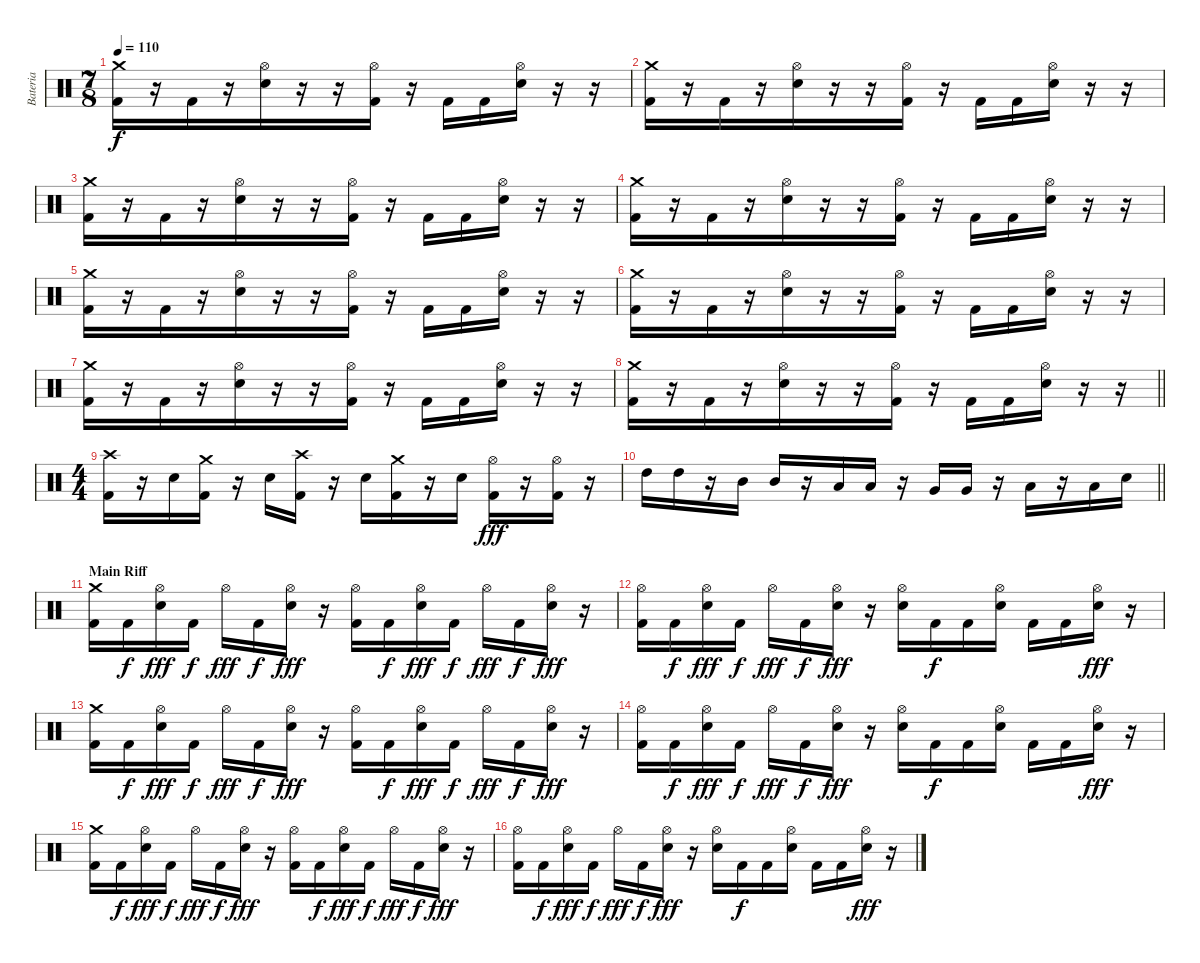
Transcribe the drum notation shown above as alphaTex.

\track ("Bateria " "Bateria ") {instrument percussion}
\staff {score}
\articulation defaults
\ts (7 8)
\tempo 110
\clef neutral
\ks c
("Crash medium (hit)" "Kick (hit) 2").16{dy f} r.16 "Kick (hit) 2".16 r.16 ("Hi-Hat (open)" "Electric Snare (hit)").16 r.16 r.16 ("Hi-Hat (open)" "Kick (hit) 2").16 r.16 "Kick (hit) 2".16 "Kick (hit) 2".16 ("Hi-Hat (open)" "Electric Snare (hit)").16 r.16 r.16 |
("Crash medium (hit)" "Kick (hit) 2").16 r.16 "Kick (hit) 2".16 r.16 ("Hi-Hat (open)" "Electric Snare (hit)").16 r.16 r.16 ("Hi-Hat (open)" "Kick (hit) 2").16 r.16 "Kick (hit) 2".16 "Kick (hit) 2".16 ("Hi-Hat (open)" "Electric Snare (hit)").16 r.16 r.16 |
("Crash medium (hit)" "Kick (hit) 2").16 r.16 "Kick (hit) 2".16 r.16 ("Hi-Hat (open)" "Electric Snare (hit)").16 r.16 r.16 ("Hi-Hat (open)" "Kick (hit) 2").16 r.16 "Kick (hit) 2".16 "Kick (hit) 2".16 ("Hi-Hat (open)" "Electric Snare (hit)").16 r.16 r.16 |
("Crash medium (hit)" "Kick (hit) 2").16 r.16 "Kick (hit) 2".16 r.16 ("Hi-Hat (open)" "Electric Snare (hit)").16 r.16 r.16 ("Hi-Hat (open)" "Kick (hit) 2").16 r.16 "Kick (hit) 2".16 "Kick (hit) 2".16 ("Hi-Hat (open)" "Electric Snare (hit)").16 r.16 r.16 |
("Crash medium (hit)" "Kick (hit) 2").16 r.16 "Kick (hit) 2".16 r.16 ("Hi-Hat (open)" "Electric Snare (hit)").16 r.16 r.16 ("Hi-Hat (open)" "Kick (hit) 2").16 r.16 "Kick (hit) 2".16 "Kick (hit) 2".16 ("Hi-Hat (open)" "Electric Snare (hit)").16 r.16 r.16 |
("Crash medium (hit)" "Kick (hit) 2").16 r.16 "Kick (hit) 2".16 r.16 ("Hi-Hat (open)" "Electric Snare (hit)").16 r.16 r.16 ("Hi-Hat (open)" "Kick (hit) 2").16 r.16 "Kick (hit) 2".16 "Kick (hit) 2".16 ("Hi-Hat (open)" "Electric Snare (hit)").16 r.16 r.16 |
("Crash medium (hit)" "Kick (hit) 2").16 r.16 "Kick (hit) 2".16 r.16 ("Hi-Hat (open)" "Electric Snare (hit)").16 r.16 r.16 ("Hi-Hat (open)" "Kick (hit) 2").16 r.16 "Kick (hit) 2".16 "Kick (hit) 2".16 ("Hi-Hat (open)" "Electric Snare (hit)").16 r.16 r.16 |
\barLineRight lightlight
("Crash medium (hit)" "Kick (hit) 2").16 r.16 "Kick (hit) 2".16 r.16 ("Hi-Hat (open)" "Electric Snare (hit)").16 r.16 r.16 ("Hi-Hat (open)" "Kick (hit) 2").16 r.16 "Kick (hit) 2".16 "Kick (hit) 2".16 ("Hi-Hat (open)" "Electric Snare (hit)").16 r.16 r.16 |
\ts (4 4)
("Crash high (hit)" "Kick (hit) 2").16 r.16 "Electric Snare (hit)".16 ("Crash medium (hit)" "Kick (hit) 2").16 r.16 "Electric Snare (hit)".16 ("Crash high (hit)" "Kick (hit) 2").16 r.16 "Electric Snare (hit)".16 ("Crash medium (hit)" "Kick (hit) 2").16 r.16 "Electric Snare (hit)".16 ("Hi-Hat (open)" "Kick (hit) 2").16{dy fff} r.16 ("Hi-Hat (open)" "Kick (hit) 2").16 r.16 |
\barLineRight lightlight "High Tom (hit)".16 "High Tom (hit)".16
r.16 "Mid Tom (hit)".16 "Mid Tom (hit)".16 r.16 "Low Tom (hit)".16 "Low Tom (hit)".16 r.16 "Very Low Tom (hit)".16 "Very Low Tom (hit)".16 r.16 "Low Floor Tom (hit)".16 r.16 "Low Floor Tom (hit)".16 "Electric Snare (hit)".16 |
\section ("" "Main Riff")
("Crash medium (hit)" "Kick (hit) 2").16 "Kick (hit) 2".16{dy f} ("Hi-Hat (open)" "Electric Snare (hit)").16{dy fff} "Kick (hit) 2".16{dy f} "Hi-Hat (open)".16{dy fff} "Kick (hit) 2".16{dy f} ("Hi-Hat (open)" "Electric Snare (hit)").16{dy fff} r.16 ("Hi-Hat (open)" "Kick (hit) 2").16 "Kick (hit) 2".16{dy f} ("Hi-Hat (open)" "Electric Snare (hit)").16{dy fff} "Kick (hit) 2".16{dy f} "Hi-Hat (open)".16{dy fff} "Kick (hit) 2".16{dy f} ("Hi-Hat (open)" "Electric Snare (hit)").16{dy fff} r.16 |
("Hi-Hat (open)" "Kick (hit) 2").16 "Kick (hit) 2".16{dy f} ("Hi-Hat (open)" "Electric Snare (hit)").16{dy fff} "Kick (hit) 2".16{dy f} "Hi-Hat (open)".16{dy fff} "Kick (hit) 2".16{dy f} ("Hi-Hat (open)" "Electric Snare (hit)").16{dy fff} r.16 ("Hi-Hat (open)" "Electric Snare (hit)").16 "Kick (hit) 2".16{dy f} "Kick (hit) 2".16 ("Hi-Hat (open)" "Electric Snare (hit)").16 "Kick (hit) 2".16 "Kick (hit) 2".16 ("Hi-Hat (open)" "Electric Snare (hit)").16{dy fff} r.16 |
("Crash medium (hit)" "Kick (hit) 2").16 "Kick (hit) 2".16{dy f} ("Hi-Hat (open)" "Electric Snare (hit)").16{dy fff} "Kick (hit) 2".16{dy f} "Hi-Hat (open)".16{dy fff} "Kick (hit) 2".16{dy f} ("Hi-Hat (open)" "Electric Snare (hit)").16{dy fff} r.16 ("Hi-Hat (open)" "Kick (hit) 2").16 "Kick (hit) 2".16{dy f} ("Hi-Hat (open)" "Electric Snare (hit)").16{dy fff} "Kick (hit) 2".16{dy f} "Hi-Hat (open)".16{dy fff} "Kick (hit) 2".16{dy f} ("Hi-Hat (open)" "Electric Snare (hit)").16{dy fff} r.16 |
("Hi-Hat (open)" "Kick (hit) 2").16 "Kick (hit) 2".16{dy f} ("Hi-Hat (open)" "Electric Snare (hit)").16{dy fff} "Kick (hit) 2".16{dy f} "Hi-Hat (open)".16{dy fff} "Kick (hit) 2".16{dy f} ("Hi-Hat (open)" "Electric Snare (hit)").16{dy fff} r.16 ("Hi-Hat (open)" "Electric Snare (hit)").16 "Kick (hit) 2".16{dy f} "Kick (hit) 2".16 ("Hi-Hat (open)" "Electric Snare (hit)").16 "Kick (hit) 2".16 "Kick (hit) 2".16 ("Hi-Hat (open)" "Electric Snare (hit)").16{dy fff} r.16 |
("Crash medium (hit)" "Kick (hit) 2").16 "Kick (hit) 2".16{dy f} ("Hi-Hat (open)" "Electric Snare (hit)").16{dy fff} "Kick (hit) 2".16{dy f} "Hi-Hat (open)".16{dy fff} "Kick (hit) 2".16{dy f} ("Hi-Hat (open)" "Electric Snare (hit)").16{dy fff} r.16 ("Hi-Hat (open)" "Kick (hit) 2").16 "Kick (hit) 2".16{dy f} ("Hi-Hat (open)" "Electric Snare (hit)").16{dy fff} "Kick (hit) 2".16{dy f} "Hi-Hat (open)".16{dy fff} "Kick (hit) 2".16{dy f} ("Hi-Hat (open)" "Electric Snare (hit)").16{dy fff} r.16 |
("Hi-Hat (open)" "Kick (hit) 2").16 "Kick (hit) 2".16{dy f} ("Hi-Hat (open)" "Electric Snare (hit)").16{dy fff} "Kick (hit) 2".16{dy f} "Hi-Hat (open)".16{dy fff} "Kick (hit) 2".16{dy f} ("Hi-Hat (open)" "Electric Snare (hit)").16{dy fff} r.16 ("Hi-Hat (open)" "Electric Snare (hit)").16 "Kick (hit) 2".16{dy f} "Kick (hit) 2".16 ("Hi-Hat (open)" "Electric Snare (hit)").16 "Kick (hit) 2".16 "Kick (hit) 2".16 ("Hi-Hat (open)" "Electric Snare (hit)").16{dy fff} r.16
